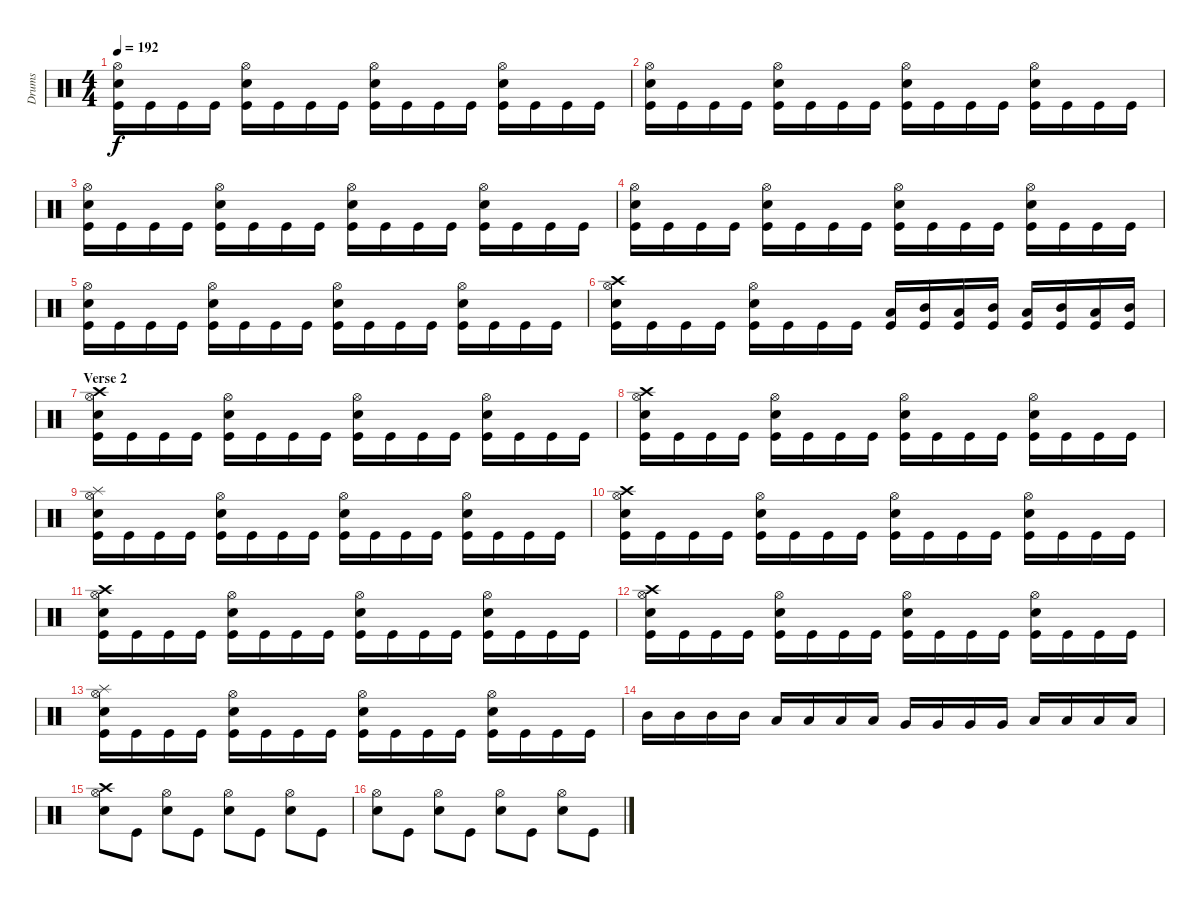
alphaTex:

\track ("Drums" "Drums") {instrument percussion}
\staff {score}
\articulation defaults
\ts (4 4)
\tempo 192
\clef neutral
\ks c
("Hi-Hat (open)" "Snare (hit) 2" "Kick (hit)").16{dy f} "Kick (hit)".16 "Kick (hit)".16 "Kick (hit)".16 ("Hi-Hat (open)" "Snare (hit) 2" "Kick (hit)").16 "Kick (hit)".16 "Kick (hit)".16 "Kick (hit)".16 ("Hi-Hat (open)" "Snare (hit) 2" "Kick (hit)").16 "Kick (hit)".16 "Kick (hit)".16 "Kick (hit)".16 ("Hi-Hat (open)" "Snare (hit) 2" "Kick (hit)").16 "Kick (hit)".16 "Kick (hit)".16 "Kick (hit)".16 |
("Hi-Hat (open)" "Snare (hit) 2" "Kick (hit)").16 "Kick (hit)".16 "Kick (hit)".16 "Kick (hit)".16 ("Hi-Hat (open)" "Snare (hit) 2" "Kick (hit)").16 "Kick (hit)".16 "Kick (hit)".16 "Kick (hit)".16 ("Hi-Hat (open)" "Snare (hit) 2" "Kick (hit)").16 "Kick (hit)".16 "Kick (hit)".16 "Kick (hit)".16 ("Hi-Hat (open)" "Snare (hit) 2" "Kick (hit)").16 "Kick (hit)".16 "Kick (hit)".16 "Kick (hit)".16 |
("Hi-Hat (open)" "Snare (hit) 2" "Kick (hit)").16 "Kick (hit)".16 "Kick (hit)".16 "Kick (hit)".16 ("Hi-Hat (open)" "Snare (hit) 2" "Kick (hit)").16 "Kick (hit)".16 "Kick (hit)".16 "Kick (hit)".16 ("Hi-Hat (open)" "Snare (hit) 2" "Kick (hit)").16 "Kick (hit)".16 "Kick (hit)".16 "Kick (hit)".16 ("Hi-Hat (open)" "Snare (hit) 2" "Kick (hit)").16 "Kick (hit)".16 "Kick (hit)".16 "Kick (hit)".16 |
("Hi-Hat (open)" "Snare (hit) 2" "Kick (hit)").16 "Kick (hit)".16 "Kick (hit)".16 "Kick (hit)".16 ("Hi-Hat (open)" "Snare (hit) 2" "Kick (hit)").16 "Kick (hit)".16 "Kick (hit)".16 "Kick (hit)".16 ("Hi-Hat (open)" "Snare (hit) 2" "Kick (hit)").16 "Kick (hit)".16 "Kick (hit)".16 "Kick (hit)".16 ("Hi-Hat (open)" "Snare (hit) 2" "Kick (hit)").16 "Kick (hit)".16 "Kick (hit)".16 "Kick (hit)".16 |
("Hi-Hat (open)" "Snare (hit) 2" "Kick (hit)").16 "Kick (hit)".16 "Kick (hit)".16 "Kick (hit)".16 ("Hi-Hat (open)" "Snare (hit) 2" "Kick (hit)").16 "Kick (hit)".16 "Kick (hit)".16 "Kick (hit)".16 ("Hi-Hat (open)" "Snare (hit) 2" "Kick (hit)").16 "Kick (hit)".16 "Kick (hit)".16 "Kick (hit)".16 ("Hi-Hat (open)" "Snare (hit) 2" "Kick (hit)").16 "Kick (hit)".16 "Kick (hit)".16 "Kick (hit)".16 |
("Crash high (hit)" "Hi-Hat (open)" "Snare (hit) 2" "Kick (hit)").16 "Kick (hit)".16 "Kick (hit)".16 "Kick (hit)".16 ("Hi-Hat (open)" "Snare (hit) 2" "Kick (hit)").16 "Kick (hit)".16 "Kick (hit)".16 "Kick (hit)".16 ("Low Tom (hit)" "Kick (hit)").16 ("Mid Tom (hit)" "Kick (hit)").16 ("Low Tom (hit)" "Kick (hit)").16 ("Mid Tom (hit)" "Kick (hit)").16 ("Low Tom (hit)" "Kick (hit)").16 ("Mid Tom (hit)" "Kick (hit)").16 ("Low Tom (hit)" "Kick (hit)").16 ("Mid Tom (hit)" "Kick (hit)").16 |
\section ("" "Verse 2")
("Crash high (hit)" "Hi-Hat (open)" "Snare (hit) 2" "Kick (hit)").16 "Kick (hit)".16 "Kick (hit)".16 "Kick (hit)".16 ("Hi-Hat (open)" "Snare (hit) 2" "Kick (hit)").16 "Kick (hit)".16 "Kick (hit)".16 "Kick (hit)".16 ("Hi-Hat (open)" "Snare (hit) 2" "Kick (hit)").16 "Kick (hit)".16 "Kick (hit)".16 "Kick (hit)".16 ("Hi-Hat (open)" "Snare (hit) 2" "Kick (hit)").16 "Kick (hit)".16 "Kick (hit)".16 "Kick (hit)".16 |
("Crash high (hit)" "Hi-Hat (open)" "Snare (hit) 2" "Kick (hit)").16 "Kick (hit)".16 "Kick (hit)".16 "Kick (hit)".16 ("Hi-Hat (open)" "Snare (hit) 2" "Kick (hit)").16 "Kick (hit)".16 "Kick (hit)".16 "Kick (hit)".16 ("Hi-Hat (open)" "Snare (hit) 2" "Kick (hit)").16 "Kick (hit)".16 "Kick (hit)".16 "Kick (hit)".16 ("Hi-Hat (open)" "Snare (hit) 2" "Kick (hit)").16 "Kick (hit)".16 "Kick (hit)".16 "Kick (hit)".16 |
("Splash (hit)" "Hi-Hat (open)" "Snare (hit) 2" "Kick (hit)").16 "Kick (hit)".16 "Kick (hit)".16 "Kick (hit)".16 ("Hi-Hat (open)" "Snare (hit) 2" "Kick (hit)").16 "Kick (hit)".16 "Kick (hit)".16 "Kick (hit)".16 ("Hi-Hat (open)" "Snare (hit) 2" "Kick (hit)").16 "Kick (hit)".16 "Kick (hit)".16 "Kick (hit)".16 ("Hi-Hat (open)" "Snare (hit) 2" "Kick (hit)").16 "Kick (hit)".16 "Kick (hit)".16 "Kick (hit)".16 |
("Crash high (hit)" "Hi-Hat (open)" "Snare (hit) 2" "Kick (hit)").16 "Kick (hit)".16 "Kick (hit)".16 "Kick (hit)".16 ("Hi-Hat (open)" "Snare (hit) 2" "Kick (hit)").16 "Kick (hit)".16 "Kick (hit)".16 "Kick (hit)".16 ("Hi-Hat (open)" "Snare (hit) 2" "Kick (hit)").16 "Kick (hit)".16 "Kick (hit)".16 "Kick (hit)".16 ("Hi-Hat (open)" "Snare (hit) 2" "Kick (hit)").16 "Kick (hit)".16 "Kick (hit)".16 "Kick (hit)".16 |
("Crash high (hit)" "Hi-Hat (open)" "Snare (hit) 2" "Kick (hit)").16 "Kick (hit)".16 "Kick (hit)".16 "Kick (hit)".16 ("Hi-Hat (open)" "Snare (hit) 2" "Kick (hit)").16 "Kick (hit)".16 "Kick (hit)".16 "Kick (hit)".16 ("Hi-Hat (open)" "Snare (hit) 2" "Kick (hit)").16 "Kick (hit)".16 "Kick (hit)".16 "Kick (hit)".16 ("Hi-Hat (open)" "Snare (hit) 2" "Kick (hit)").16 "Kick (hit)".16 "Kick (hit)".16 "Kick (hit)".16 |
("Crash high (hit)" "Hi-Hat (open)" "Snare (hit) 2" "Kick (hit)").16 "Kick (hit)".16 "Kick (hit)".16 "Kick (hit)".16 ("Hi-Hat (open)" "Snare (hit) 2" "Kick (hit)").16 "Kick (hit)".16 "Kick (hit)".16 "Kick (hit)".16 ("Hi-Hat (open)" "Snare (hit) 2" "Kick (hit)").16 "Kick (hit)".16 "Kick (hit)".16 "Kick (hit)".16 ("Hi-Hat (open)" "Snare (hit) 2" "Kick (hit)").16 "Kick (hit)".16 "Kick (hit)".16 "Kick (hit)".16 |
("Splash (hit)" "Hi-Hat (open)" "Snare (hit) 2" "Kick (hit)").16 "Kick (hit)".16 "Kick (hit)".16 "Kick (hit)".16 ("Hi-Hat (open)" "Snare (hit) 2" "Kick (hit)").16 "Kick (hit)".16 "Kick (hit)".16 "Kick (hit)".16 ("Hi-Hat (open)" "Snare (hit) 2" "Kick (hit)").16 "Kick (hit)".16 "Kick (hit)".16 "Kick (hit)".16 ("Hi-Hat (open)" "Snare (hit) 2" "Kick (hit)").16 "Kick (hit)".16 "Kick (hit)".16 "Kick (hit)".16 |
"Mid Tom (hit)".16 "Mid Tom (hit)".16 "Mid Tom (hit)".16 "Mid Tom (hit)".16 "Low Tom (hit)".16 "Low Tom (hit)".16 "Low Tom (hit)".16 "Low Tom (hit)".16 "Very Low Tom (hit)".16 "Very Low Tom (hit)".16 "Very Low Tom (hit)".16 "Very Low Tom (hit)".16 "Low Floor Tom (hit)".16 "Low Floor Tom (hit)".16 "Low Floor Tom (hit)".16 "Low Floor Tom (hit)".16 |
("Crash high (hit)" "Hi-Hat (open)" "Snare (hit) 2").8 "Kick (hit)".8 ("Hi-Hat (open)" "Snare (hit) 2").8 "Kick (hit)".8 ("Hi-Hat (open)" "Snare (hit) 2").8 "Kick (hit)".8 ("Hi-Hat (open)" "Snare (hit) 2").8 "Kick (hit)".8 |
("Hi-Hat (open)" "Snare (hit) 2").8 "Kick (hit)".8 ("Hi-Hat (open)" "Snare (hit) 2").8 "Kick (hit)".8 ("Hi-Hat (open)" "Snare (hit) 2").8 "Kick (hit)".8 ("Hi-Hat (open)" "Snare (hit) 2").8 "Kick (hit)".8
